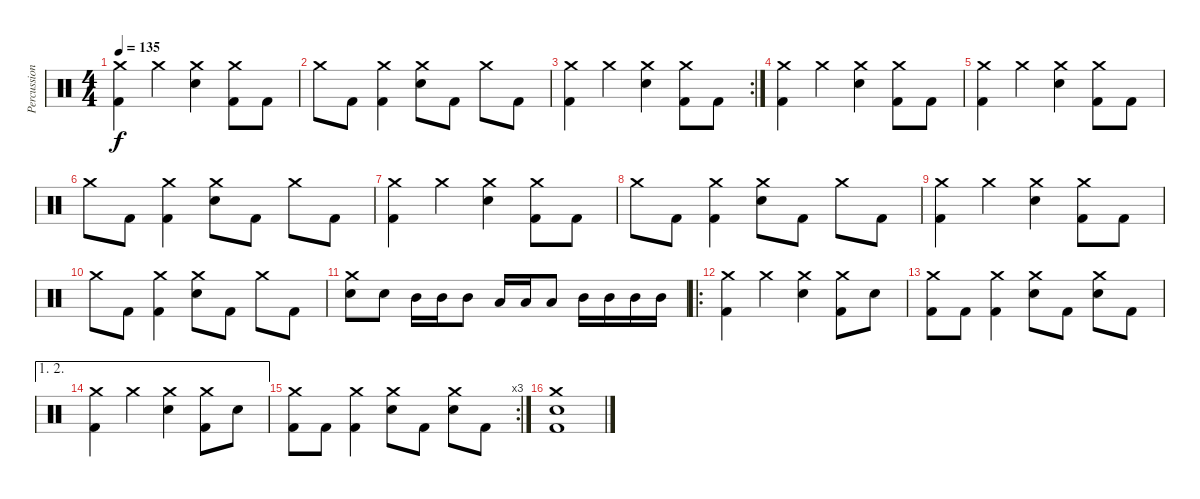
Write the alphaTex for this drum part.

\track ("Percussion" "Percussion") {instrument percussion}
\staff {score}
\articulation defaults
\ts (4 4)
\tempo 135
\clef neutral
\ks c
("Crash medium (hit)" "Kick (hit) 2").4{dy f} "Crash medium (hit)".4 ("Crash medium (hit)" "Electric Snare (hit)").4 ("Crash medium (hit)" "Kick (hit) 2").8 "Kick (hit) 2".8 |
"Crash medium (hit)".8 "Kick (hit) 2".8 ("Crash medium (hit)" "Kick (hit) 2").4 ("Crash medium (hit)" "Electric Snare (hit)").8 "Kick (hit) 2".8 "Crash medium (hit)".8 "Kick (hit) 2".8 |
\rc 2
("Crash medium (hit)" "Kick (hit) 2").4 "Crash medium (hit)".4 ("Crash medium (hit)" "Electric Snare (hit)").4 ("Crash medium (hit)" "Kick (hit) 2").8 "Kick (hit) 2".8 |
("Crash medium (hit)" "Kick (hit) 2").4 "Crash medium (hit)".4 ("Crash medium (hit)" "Electric Snare (hit)").4 ("Crash medium (hit)" "Kick (hit) 2").8 "Kick (hit) 2".8 |
("Crash medium (hit)" "Kick (hit) 2").4 "Crash medium (hit)".4 ("Crash medium (hit)" "Electric Snare (hit)").4 ("Crash medium (hit)" "Kick (hit) 2").8 "Kick (hit) 2".8 |
"Crash medium (hit)".8 "Kick (hit) 2".8 ("Crash medium (hit)" "Kick (hit) 2").4 ("Crash medium (hit)" "Electric Snare (hit)").8 "Kick (hit) 2".8 "Crash medium (hit)".8 "Kick (hit) 2".8 |
("Crash medium (hit)" "Kick (hit) 2").4 "Crash medium (hit)".4 ("Crash medium (hit)" "Electric Snare (hit)").4 ("Crash medium (hit)" "Kick (hit) 2").8 "Kick (hit) 2".8 |
"Crash medium (hit)".8 "Kick (hit) 2".8 ("Crash medium (hit)" "Kick (hit) 2").4 ("Crash medium (hit)" "Electric Snare (hit)").8 "Kick (hit) 2".8 "Crash medium (hit)".8 "Kick (hit) 2".8 |
("Crash medium (hit)" "Kick (hit) 2").4 "Crash medium (hit)".4 ("Crash medium (hit)" "Electric Snare (hit)").4 ("Crash medium (hit)" "Kick (hit) 2").8 "Kick (hit) 2".8 |
"Crash medium (hit)".8 "Kick (hit) 2".8 ("Crash medium (hit)" "Kick (hit) 2").4 ("Crash medium (hit)" "Electric Snare (hit)").8 "Kick (hit) 2".8 "Crash medium (hit)".8 "Kick (hit) 2".8 |
("Crash medium (hit)" "Electric Snare (hit)").8 "Electric Snare (hit)".8 "Mid Tom (hit)".16 "Mid Tom (hit)".16 "Mid Tom (hit)".8 "Low Tom (hit)".16 "Low Tom (hit)".16 "Low Tom (hit)".8 "Mid Tom (hit)".16 "Mid Tom (hit)".16 "Mid Tom (hit)".16 "Mid Tom (hit)".16 |
\ro
("Crash medium (hit)" "Kick (hit) 2").4 "Crash medium (hit)".4 ("Crash medium (hit)" "Electric Snare (hit)").4 ("Crash medium (hit)" "Kick (hit) 2").8 "Electric Snare (hit)".8 |
("Crash medium (hit)" "Kick (hit) 2").8 "Kick (hit) 2".8 ("Crash medium (hit)" "Kick (hit) 2").4 ("Crash medium (hit)" "Electric Snare (hit)").8 "Kick (hit) 2".8 ("Crash medium (hit)" "Electric Snare (hit)").8 "Kick (hit) 2".8 |
\ae (1 2)
("Crash medium (hit)" "Kick (hit) 2").4 "Crash medium (hit)".4 ("Crash medium (hit)" "Electric Snare (hit)").4 ("Crash medium (hit)" "Kick (hit) 2").8 "Electric Snare (hit)".8 |
\rc 3
("Crash medium (hit)" "Kick (hit) 2").8 "Kick (hit) 2".8 ("Crash medium (hit)" "Kick (hit) 2").4 ("Crash medium (hit)" "Electric Snare (hit)").8 "Kick (hit) 2".8 ("Crash medium (hit)" "Electric Snare (hit)").8 "Kick (hit) 2".8 |
("Crash medium (hit)" "Electric Snare (hit)" "Kick (hit) 2").1
